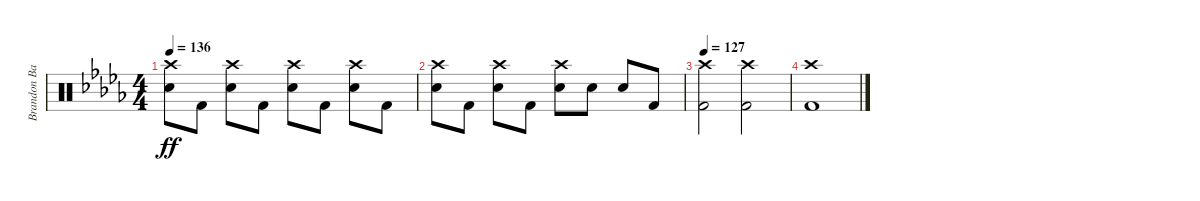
\track ("Brandon Barnes - Drums" "Brandon Ba") {instrument percussion}
\staff {score}
\articulation defaults
\ts (4 4)
\tempo 136
\clef neutral
\ks db
("Crash high (hit)" "Snare (hit) 2").8{dy ff} "Kick (hit) 2".8 ("Crash high (hit)" "Snare (hit) 2").8 "Kick (hit) 2".8 ("Crash high (hit)" "Snare (hit) 2").8 "Kick (hit) 2".8 ("Crash high (hit)" "Snare (hit) 2").8 "Kick (hit) 2".8 |
("Crash high (hit)" "Snare (hit) 2").8 "Kick (hit) 2".8 ("Crash high (hit)" "Snare (hit) 2").8 "Kick (hit) 2".8 ("Crash high (hit)" "Snare (hit) 2").8 "Snare (hit) 2".8 "Snare (hit) 2".8 "Kick (hit) 2".8 |
\tempo 127
("Crash high (hit)" "Kick (hit) 2").2 ("Crash high (hit)" "Kick (hit) 2").2 |
("Crash high (hit)" "Kick (hit) 2").1
